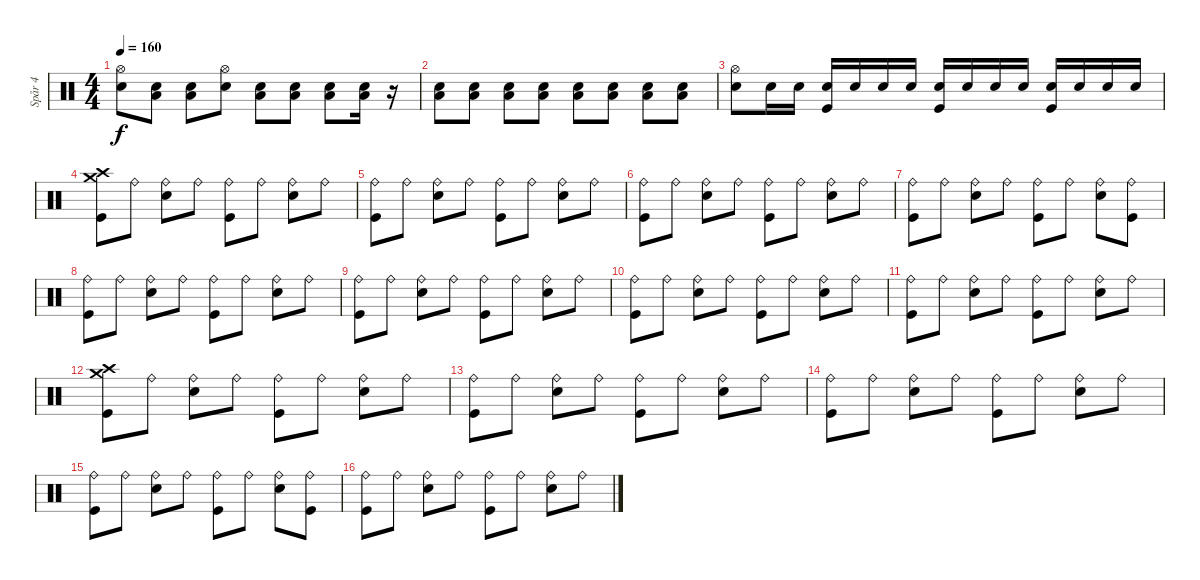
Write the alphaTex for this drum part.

\track ("Spår 4" "Spår 4") {instrument percussion}
\staff {score}
\articulation defaults
\ts (4 4)
\tempo 160
\clef neutral
\ks c
("Hi-Hat (open)" "Snare (hit) 2").8{dy f} ("Low Floor Tom (hit)" "Snare (hit) 2").8 ("Low Floor Tom (hit)" "Snare (hit) 2").8 ("Hi-Hat (open)" "Snare (hit) 2").8 ("Low Floor Tom (hit)" "Snare (hit) 2").8 ("Low Floor Tom (hit)" "Snare (hit) 2").8 ("Low Floor Tom (hit)" "Snare (hit) 2").8 ("Low Floor Tom (hit)" "Snare (hit) 2").16 r.16{volume 9} |
("Low Floor Tom (hit)" "Snare (hit) 2").8{volume 13} ("Low Floor Tom (hit)" "Snare (hit) 2").8 ("Low Floor Tom (hit)" "Snare (hit) 2").8 ("Low Floor Tom (hit)" "Snare (hit) 2").8 ("Low Floor Tom (hit)" "Snare (hit) 2").8 ("Low Floor Tom (hit)" "Snare (hit) 2").8 ("Low Floor Tom (hit)" "Snare (hit) 2").8 ("Low Floor Tom (hit)" "Snare (hit) 2").8 |
("Hi-Hat (open)" "Snare (hit) 2").8 "Snare (hit) 2".16 "Snare (hit) 2".16 ("Snare (hit) 2" "Kick (hit)").16 "Snare (hit) 2".16 "Snare (hit) 2".16 "Snare (hit) 2".16 ("Snare (hit) 2" "Kick (hit)").16 "Snare (hit) 2".16 "Snare (hit) 2".16 "Snare (hit) 2".16 ("Snare (hit) 2" "Kick (hit)").16 "Snare (hit) 2".16 "Snare (hit) 2".16 "Snare (hit) 2".16 |
("Crash medium (hit)" "Crash high (hit)" "Kick (hit)").8 "Ride (bell)".8 ("Ride (bell)" "Snare (hit) 2").8 "Ride (bell)".8 ("Ride (bell)" "Kick (hit)").8 "Ride (bell)".8 ("Ride (bell)" "Snare (hit) 2").8 "Ride (bell)".8 |
("Ride (bell)" "Kick (hit)").8 "Ride (bell)".8 ("Ride (bell)" "Snare (hit) 2").8 "Ride (bell)".8 ("Ride (bell)" "Kick (hit)").8 "Ride (bell)".8 ("Ride (bell)" "Snare (hit) 2").8 "Ride (bell)".8 |
("Ride (bell)" "Kick (hit)").8 "Ride (bell)".8 ("Ride (bell)" "Snare (hit) 2").8 "Ride (bell)".8 ("Ride (bell)" "Kick (hit)").8 "Ride (bell)".8 ("Ride (bell)" "Snare (hit) 2").8 "Ride (bell)".8 |
("Ride (bell)" "Kick (hit)").8 "Ride (bell)".8 ("Ride (bell)" "Snare (hit) 2").8 "Ride (bell)".8 ("Ride (bell)" "Kick (hit)").8 "Ride (bell)".8 ("Ride (bell)" "Snare (hit) 2").8 ("Ride (bell)" "Kick (hit)").8 |
("Ride (bell)" "Kick (hit)").8 "Ride (bell)".8 ("Ride (bell)" "Snare (hit) 2").8 "Ride (bell)".8 ("Ride (bell)" "Kick (hit)").8 "Ride (bell)".8 ("Ride (bell)" "Snare (hit) 2").8 "Ride (bell)".8 |
("Ride (bell)" "Kick (hit)").8 "Ride (bell)".8 ("Ride (bell)" "Snare (hit) 2").8 "Ride (bell)".8 ("Ride (bell)" "Kick (hit)").8 "Ride (bell)".8 ("Ride (bell)" "Snare (hit) 2").8 "Ride (bell)".8 |
("Ride (bell)" "Kick (hit)").8 "Ride (bell)".8 ("Ride (bell)" "Snare (hit) 2").8 "Ride (bell)".8 ("Ride (bell)" "Kick (hit)").8 "Ride (bell)".8 ("Ride (bell)" "Snare (hit) 2").8 "Ride (bell)".8 |
("Ride (bell)" "Kick (hit)").8 "Ride (bell)".8 ("Ride (bell)" "Snare (hit) 2").8 "Ride (bell)".8 ("Ride (bell)" "Kick (hit)").8 "Ride (bell)".8 ("Ride (bell)" "Snare (hit) 2").8 "Ride (bell)".8 |
("Crash medium (hit)" "Crash high (hit)" "Kick (hit)").8 "Ride (bell)".8 ("Ride (bell)" "Snare (hit) 2").8 "Ride (bell)".8 ("Ride (bell)" "Kick (hit)").8 "Ride (bell)".8 ("Ride (bell)" "Snare (hit) 2").8 "Ride (bell)".8 |
("Ride (bell)" "Kick (hit)").8 "Ride (bell)".8 ("Ride (bell)" "Snare (hit) 2").8 "Ride (bell)".8 ("Ride (bell)" "Kick (hit)").8 "Ride (bell)".8 ("Ride (bell)" "Snare (hit) 2").8 "Ride (bell)".8 |
("Ride (bell)" "Kick (hit)").8 "Ride (bell)".8 ("Ride (bell)" "Snare (hit) 2").8 "Ride (bell)".8 ("Ride (bell)" "Kick (hit)").8 "Ride (bell)".8 ("Ride (bell)" "Snare (hit) 2").8 "Ride (bell)".8 |
("Ride (bell)" "Kick (hit)").8 "Ride (bell)".8 ("Ride (bell)" "Snare (hit) 2").8 "Ride (bell)".8 ("Ride (bell)" "Kick (hit)").8 "Ride (bell)".8 ("Ride (bell)" "Snare (hit) 2").8 ("Ride (bell)" "Kick (hit)").8 |
("Ride (bell)" "Kick (hit)").8 "Ride (bell)".8 ("Ride (bell)" "Snare (hit) 2").8 "Ride (bell)".8 ("Ride (bell)" "Kick (hit)").8 "Ride (bell)".8 ("Ride (bell)" "Snare (hit) 2").8 "Ride (bell)".8
